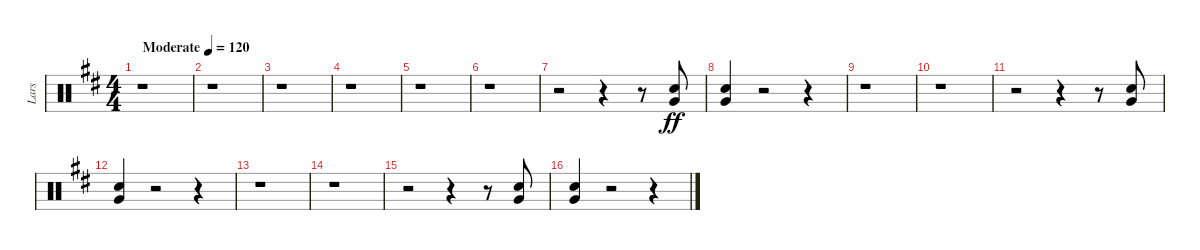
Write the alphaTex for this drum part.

\track ("Lars" "Lars") {instrument percussion}
\staff {score}
\articulation defaults
\ts (4 4)
\tempo (120 "Moderate")
\clef neutral
\ks d
r.1{dy ff} |
r.1 |
r.1 |
r.1 |
r.1 |
r.1 |
r.2 r.4 r.8 ("Very Low Tom (hit)" "Snare (hit) 2").8 |
("Very Low Tom (hit)" "Snare (hit) 2").4 r.2 r.4 |
r.1 |
r.1 |
r.2 r.4 r.8 ("Very Low Tom (hit)" "Snare (hit) 2").8 |
("Very Low Tom (hit)" "Snare (hit) 2").4 r.2 r.4 |
r.1 |
r.1 |
r.2 r.4 r.8 ("Very Low Tom (hit)" "Snare (hit) 2").8 |
("Very Low Tom (hit)" "Snare (hit) 2").4 r.2 r.4
